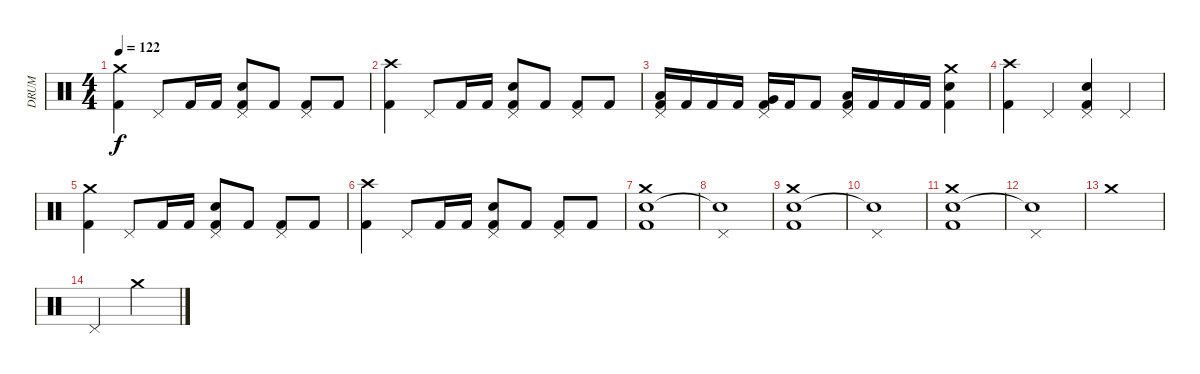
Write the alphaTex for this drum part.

\track ("DRUM" "DRUM") {instrument percussion}
\staff {score}
\articulation defaults
\ts (4 4)
\tempo 122
\clef neutral
\ks c
("Crash medium (hit)" "Kick (hit) 2").4{dy f} "Pedal Hi-Hat (hit)".8 "Kick (hit) 2".16 "Kick (hit) 2".16 ("Pedal Hi-Hat (hit)" "Electric Snare (hit)" "Kick (hit) 2").8 "Kick (hit) 2".8 ("Pedal Hi-Hat (hit)" "Kick (hit) 2").8 "Kick (hit) 2".8 |
("Crash high (hit)" "Kick (hit) 2").4 "Pedal Hi-Hat (hit)".8 "Kick (hit) 2".16 "Kick (hit) 2".16 ("Pedal Hi-Hat (hit)" "Electric Snare (hit)" "Kick (hit) 2").8 "Kick (hit) 2".8 ("Pedal Hi-Hat (hit)" "Kick (hit) 2").8 "Kick (hit) 2".8 |
("Low Tom (hit)" "Kick (hit) 2" "Pedal Hi-Hat (hit)").16 "Kick (hit) 2".16 "Kick (hit) 2".16 "Kick (hit) 2".16 ("Very Low Tom (hit)" "Kick (hit) 2" "Pedal Hi-Hat (hit)").16 "Kick (hit) 2".16 "Kick (hit) 2".8 ("Low Floor Tom (hit)" "Kick (hit) 2" "Pedal Hi-Hat (hit)").16 "Kick (hit) 2".16 "Kick (hit) 2".16 "Kick (hit) 2".16 ("Crash medium (hit)" "Electric Snare (hit)" "Kick (hit) 2").4 |
("Crash high (hit)" "Kick (hit) 2").4 "Pedal Hi-Hat (hit)".4 ("Pedal Hi-Hat (hit)" "Electric Snare (hit)" "Kick (hit) 2").4 "Pedal Hi-Hat (hit)".4 |
("Crash medium (hit)" "Kick (hit) 2").4 "Pedal Hi-Hat (hit)".8 "Kick (hit) 2".16 "Kick (hit) 2".16 ("Pedal Hi-Hat (hit)" "Electric Snare (hit)" "Kick (hit) 2").8 "Kick (hit) 2".8 ("Pedal Hi-Hat (hit)" "Kick (hit) 2").8 "Kick (hit) 2".8 |
("Crash high (hit)" "Kick (hit) 2").4 "Pedal Hi-Hat (hit)".8 "Kick (hit) 2".16 "Kick (hit) 2".16 ("Pedal Hi-Hat (hit)" "Electric Snare (hit)" "Kick (hit) 2").8 "Kick (hit) 2".8 ("Pedal Hi-Hat (hit)" "Kick (hit) 2").8 "Kick (hit) 2".8 |
("Crash medium (hit)" "Electric Snare (hit)" "Kick (hit) 2").1 |
("Pedal Hi-Hat (hit)" "Snare (hit)"{t}).1 |
("Crash medium (hit)" "Electric Snare (hit)" "Kick (hit) 2").1 |
("Pedal Hi-Hat (hit)" "Snare (hit)"{t}).1 |
("Crash medium (hit)" "Electric Snare (hit)" "Kick (hit) 2").1 |
("Pedal Hi-Hat (hit)" "Snare (hit)"{t}).1 |
"Crash medium (hit)".1 |
"Pedal Hi-Hat (hit)".2 "Crash medium (hit)".2
